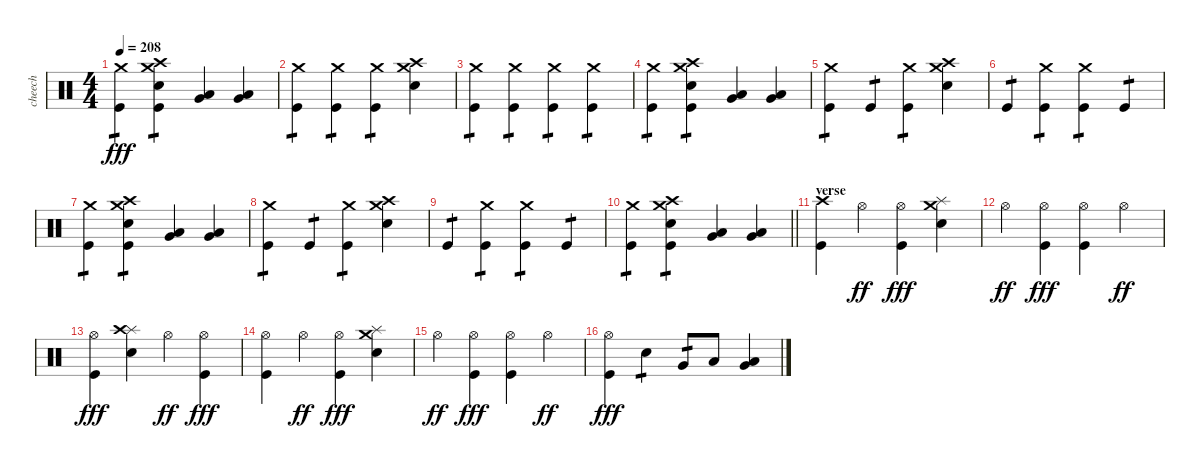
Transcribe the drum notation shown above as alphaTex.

\track ("cheech" "cheech") {instrument percussion}
\staff {score}
\articulation defaults
\ts (4 4)
\tempo 208
\clef neutral
\ks c
("Crash medium (hit)" "Kick (hit)").4{tp 1 dy fff} ("Crash medium (hit)" "Crash high (hit)" "Electric Snare (hit)" "Kick (hit)").4{tp 1} ("Low Tom (hit)" "Very Low Tom (hit)").4 ("Very Low Tom (hit)" "Low Floor Tom (hit)").4 |
("Crash medium (hit)" "Kick (hit)").4{tp 1} ("Crash medium (hit)" "Kick (hit)").4{tp 1} ("Crash medium (hit)" "Kick (hit)").4{tp 1} ("Crash medium (hit)" "Crash high (hit)" "Electric Snare (hit)").4 |
("Crash medium (hit)" "Kick (hit)").4{tp 1} ("Crash medium (hit)" "Kick (hit)").4{tp 1} ("Crash medium (hit)" "Kick (hit)").4{tp 1} ("Crash medium (hit)" "Kick (hit)").4{tp 1} |
("Crash medium (hit)" "Kick (hit)").4{tp 1} ("Crash medium (hit)" "Crash high (hit)" "Electric Snare (hit)" "Kick (hit)").4{tp 1} ("Low Tom (hit)" "Very Low Tom (hit)").4 ("Very Low Tom (hit)" "Low Floor Tom (hit)").4 |
("Crash medium (hit)" "Kick (hit)").4{tp 1} "Kick (hit)".4{tp 1} ("Crash medium (hit)" "Kick (hit)").4{tp 1} ("Crash medium (hit)" "Crash high (hit)" "Electric Snare (hit)").4 |
"Kick (hit)".4{tp 1} ("Crash medium (hit)" "Kick (hit)").4{tp 1} ("Crash medium (hit)" "Kick (hit)").4{tp 1} "Kick (hit)".4{tp 1} |
("Crash medium (hit)" "Kick (hit)").4{tp 1} ("Crash medium (hit)" "Crash high (hit)" "Electric Snare (hit)" "Kick (hit)").4{tp 1} ("Low Tom (hit)" "Very Low Tom (hit)").4 ("Very Low Tom (hit)" "Low Floor Tom (hit)").4 |
("Crash medium (hit)" "Kick (hit)").4{tp 1} "Kick (hit)".4{tp 1} ("Crash medium (hit)" "Kick (hit)").4{tp 1} ("Crash medium (hit)" "Crash high (hit)" "Electric Snare (hit)").4 |
"Kick (hit)".4{tp 1} ("Crash medium (hit)" "Kick (hit)").4{tp 1} ("Crash medium (hit)" "Kick (hit)").4{tp 1} "Kick (hit)".4{tp 1} |
\barLineRight lightlight
("Crash medium (hit)" "Kick (hit)").4{tp 1} ("Crash medium (hit)" "Crash high (hit)" "Electric Snare (hit)" "Kick (hit)").4{tp 1} ("Low Tom (hit)" "Very Low Tom (hit)").4 ("Very Low Tom (hit)" "Low Floor Tom (hit)").4 |
\section ("" "verse")
("Crash high (hit)" "Kick (hit)").4 "Hi-Hat (open)".4{dy ff} ("Hi-Hat (open)" "Kick (hit)").4{dy fff} ("Splash (hit)" "Crash medium (hit)" "Electric Snare (hit)").4 |
"Hi-Hat (open)".4{dy ff} ("Hi-Hat (open)" "Kick (hit)").4{dy fff} ("Hi-Hat (open)" "Kick (hit)").4 "Hi-Hat (open)".4{dy ff} |
("Hi-Hat (open)" "Kick (hit)").4{dy fff} ("Splash (hit)" "Crash high (hit)" "Electric Snare (hit)").4 "Hi-Hat (open)".4{dy ff} ("Hi-Hat (open)" "Kick (hit)").4{dy fff} |
("Hi-Hat (open)" "Kick (hit)").4 "Hi-Hat (open)".4{dy ff} ("Hi-Hat (open)" "Kick (hit)").4{dy fff} ("Splash (hit)" "Crash medium (hit)" "Electric Snare (hit)").4 |
"Hi-Hat (open)".4{dy ff} ("Hi-Hat (open)" "Kick (hit)").4{dy fff} ("Hi-Hat (open)" "Kick (hit)").4 "Hi-Hat (open)".4{dy ff} |
("Hi-Hat (open)" "Kick (hit)").4{dy fff} "Electric Snare (hit)".4{tp 1} "Very Low Tom (hit)".8{tp 1} "Low Tom (hit)".8 ("Very Low Tom (hit)" "Low Floor Tom (hit)").4
